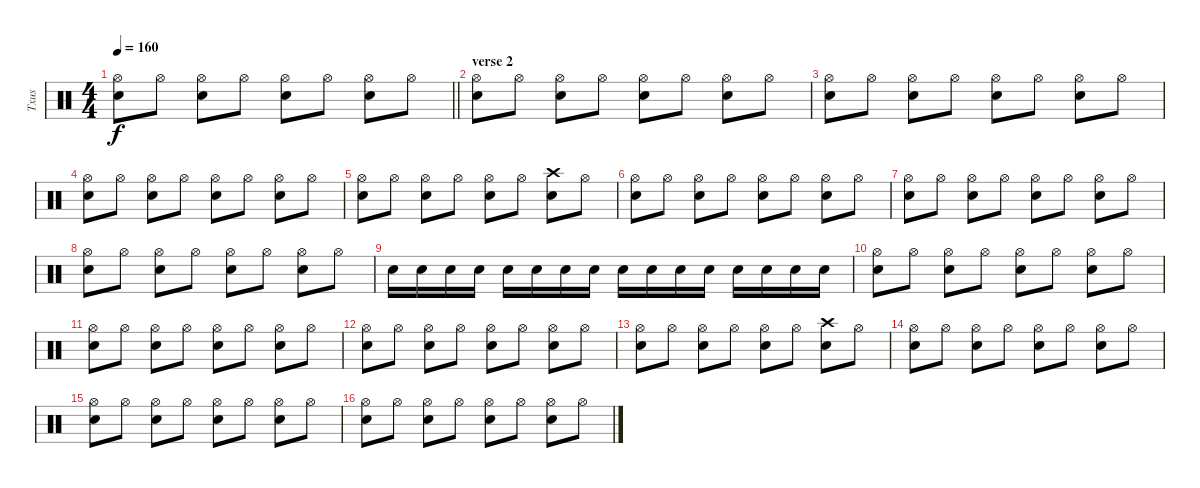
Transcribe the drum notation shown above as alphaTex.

\track ("Txus" "Txus") {instrument percussion}
\staff {score}
\articulation defaults
\ts (4 4)
\tempo 160
\clef neutral
\barLineRight lightlight
\ks c
("Snare (hit) 2" "Hi-Hat (open)").8{dy f} "Hi-Hat (open)".8 ("Snare (hit) 2" "Hi-Hat (open)").8 "Hi-Hat (open)".8 ("Snare (hit) 2" "Hi-Hat (open)").8 "Hi-Hat (open)".8 ("Snare (hit) 2" "Hi-Hat (open)").8 "Hi-Hat (open)".8 |
\section ("" "verse 2")
("Snare (hit) 2" "Hi-Hat (open)").8 "Hi-Hat (open)".8 ("Snare (hit) 2" "Hi-Hat (open)").8 "Hi-Hat (open)".8 ("Snare (hit) 2" "Hi-Hat (open)").8 "Hi-Hat (open)".8 ("Snare (hit) 2" "Hi-Hat (open)").8 "Hi-Hat (open)".8 |
("Snare (hit) 2" "Hi-Hat (open)").8 "Hi-Hat (open)".8 ("Snare (hit) 2" "Hi-Hat (open)").8 "Hi-Hat (open)".8 ("Snare (hit) 2" "Hi-Hat (open)").8 "Hi-Hat (open)".8 ("Snare (hit) 2" "Hi-Hat (open)").8 "Hi-Hat (open)".8 |
("Snare (hit) 2" "Hi-Hat (open)").8 "Hi-Hat (open)".8 ("Snare (hit) 2" "Hi-Hat (open)").8 "Hi-Hat (open)".8 ("Snare (hit) 2" "Hi-Hat (open)").8 "Hi-Hat (open)".8 ("Snare (hit) 2" "Hi-Hat (open)").8 "Hi-Hat (open)".8 |
("Snare (hit) 2" "Hi-Hat (open)").8 "Hi-Hat (open)".8 ("Snare (hit) 2" "Hi-Hat (open)").8 "Hi-Hat (open)".8 ("Snare (hit) 2" "Hi-Hat (open)").8 "Hi-Hat (open)".8 ("Snare (hit) 2" "Crash high (hit)").8 "Hi-Hat (open)".8 |
("Snare (hit) 2" "Hi-Hat (open)").8 "Hi-Hat (open)".8 ("Snare (hit) 2" "Hi-Hat (open)").8 "Hi-Hat (open)".8 ("Snare (hit) 2" "Hi-Hat (open)").8 "Hi-Hat (open)".8 ("Snare (hit) 2" "Hi-Hat (open)").8 "Hi-Hat (open)".8 |
("Snare (hit) 2" "Hi-Hat (open)").8 "Hi-Hat (open)".8 ("Snare (hit) 2" "Hi-Hat (open)").8 "Hi-Hat (open)".8 ("Snare (hit) 2" "Hi-Hat (open)").8 "Hi-Hat (open)".8 ("Snare (hit) 2" "Hi-Hat (open)").8 "Hi-Hat (open)".8 |
("Snare (hit) 2" "Hi-Hat (open)").8 "Hi-Hat (open)".8 ("Snare (hit) 2" "Hi-Hat (open)").8 "Hi-Hat (open)".8 ("Snare (hit) 2" "Hi-Hat (open)").8 "Hi-Hat (open)".8 ("Snare (hit) 2" "Hi-Hat (open)").8 "Hi-Hat (open)".8 |
"Snare (hit) 2".16 "Snare (hit) 2".16 "Snare (hit) 2".16 "Snare (hit) 2".16 "Snare (hit) 2".16 "Snare (hit) 2".16 "Snare (hit) 2".16 "Snare (hit) 2".16 "Snare (hit) 2".16 "Snare (hit) 2".16 "Snare (hit) 2".16 "Snare (hit) 2".16 "Snare (hit) 2".16 "Snare (hit) 2".16 "Snare (hit) 2".16 "Snare (hit) 2".16 |
("Snare (hit) 2" "Hi-Hat (open)").8 "Hi-Hat (open)".8 ("Snare (hit) 2" "Hi-Hat (open)").8 "Hi-Hat (open)".8 ("Snare (hit) 2" "Hi-Hat (open)").8 "Hi-Hat (open)".8 ("Snare (hit) 2" "Hi-Hat (open)").8 "Hi-Hat (open)".8 |
("Snare (hit) 2" "Hi-Hat (open)").8 "Hi-Hat (open)".8 ("Snare (hit) 2" "Hi-Hat (open)").8 "Hi-Hat (open)".8 ("Snare (hit) 2" "Hi-Hat (open)").8 "Hi-Hat (open)".8 ("Snare (hit) 2" "Hi-Hat (open)").8 "Hi-Hat (open)".8 |
("Snare (hit) 2" "Hi-Hat (open)").8 "Hi-Hat (open)".8 ("Snare (hit) 2" "Hi-Hat (open)").8 "Hi-Hat (open)".8 ("Snare (hit) 2" "Hi-Hat (open)").8 "Hi-Hat (open)".8 ("Snare (hit) 2" "Hi-Hat (open)").8 "Hi-Hat (open)".8 |
("Snare (hit) 2" "Hi-Hat (open)").8 "Hi-Hat (open)".8 ("Snare (hit) 2" "Hi-Hat (open)").8 "Hi-Hat (open)".8 ("Snare (hit) 2" "Hi-Hat (open)").8 "Hi-Hat (open)".8 ("Snare (hit) 2" "Crash high (hit)").8 "Hi-Hat (open)".8 |
("Snare (hit) 2" "Hi-Hat (open)").8 "Hi-Hat (open)".8 ("Snare (hit) 2" "Hi-Hat (open)").8 "Hi-Hat (open)".8 ("Snare (hit) 2" "Hi-Hat (open)").8 "Hi-Hat (open)".8 ("Snare (hit) 2" "Hi-Hat (open)").8 "Hi-Hat (open)".8 |
("Snare (hit) 2" "Hi-Hat (open)").8 "Hi-Hat (open)".8 ("Snare (hit) 2" "Hi-Hat (open)").8 "Hi-Hat (open)".8 ("Snare (hit) 2" "Hi-Hat (open)").8 "Hi-Hat (open)".8 ("Snare (hit) 2" "Hi-Hat (open)").8 "Hi-Hat (open)".8 |
("Snare (hit) 2" "Hi-Hat (open)").8 "Hi-Hat (open)".8 ("Snare (hit) 2" "Hi-Hat (open)").8 "Hi-Hat (open)".8 ("Snare (hit) 2" "Hi-Hat (open)").8 "Hi-Hat (open)".8 ("Snare (hit) 2" "Hi-Hat (open)").8 "Hi-Hat (open)".8
